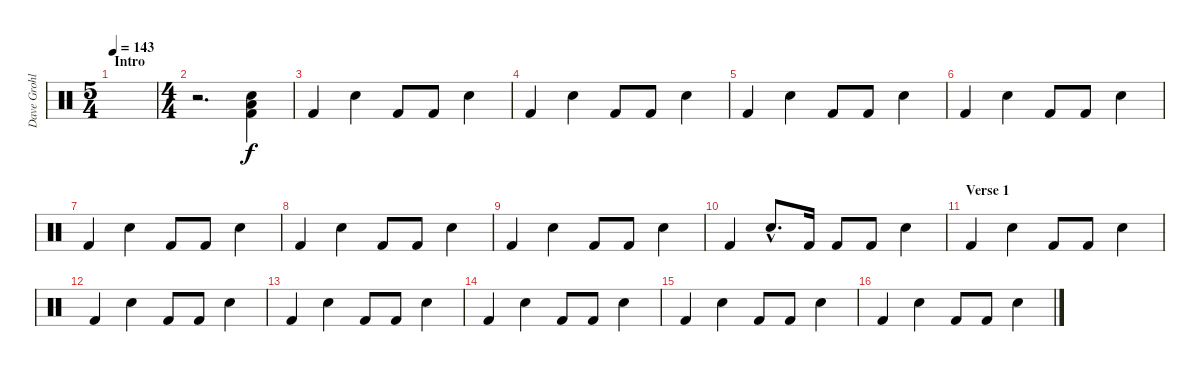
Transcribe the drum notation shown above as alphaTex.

\track ("Dave Grohl" "Dave Grohl") {instrument percussion}
\staff {score}
\articulation defaults
\ts (5 4)
\section ("" "Intro")
\tempo 143
\clef neutral
\ks c
|
\ts (4 4)
r.2{d} ("Snare (hit) 2" "Kick (hit) 2" "Low Tom (hit)").4 |
"Kick (hit) 2".4 "Snare (hit) 2".4 "Kick (hit) 2".8 "Kick (hit) 2".8 "Snare (hit) 2".4 |
"Kick (hit) 2".4 "Snare (hit) 2".4 "Kick (hit) 2".8 "Kick (hit) 2".8 "Snare (hit) 2".4 |
"Kick (hit) 2".4 "Snare (hit) 2".4 "Kick (hit) 2".8 "Kick (hit) 2".8 "Snare (hit) 2".4 |
"Kick (hit) 2".4 "Snare (hit) 2".4 "Kick (hit) 2".8 "Kick (hit) 2".8 "Snare (hit) 2".4 |
"Kick (hit) 2".4 "Snare (hit) 2".4 "Kick (hit) 2".8 "Kick (hit) 2".8 "Snare (hit) 2".4 |
"Kick (hit) 2".4 "Snare (hit) 2".4 "Kick (hit) 2".8 "Kick (hit) 2".8 "Snare (hit) 2".4 |
"Kick (hit) 2".4 "Snare (hit) 2".4 "Kick (hit) 2".8 "Kick (hit) 2".8 "Snare (hit) 2".4 |
"Kick (hit) 2".4 "Snare (hit) 2"{hac}.8{d} "Kick (hit) 2".16 "Kick (hit) 2".8 "Kick (hit) 2".8 "Snare (hit) 2".4 |
\section ("" "Verse 1")
"Kick (hit) 2".4 "Snare (hit) 2".4 "Kick (hit) 2".8 "Kick (hit) 2".8 "Snare (hit) 2".4 |
"Kick (hit) 2".4 "Snare (hit) 2".4 "Kick (hit) 2".8 "Kick (hit) 2".8 "Snare (hit) 2".4 |
"Kick (hit) 2".4 "Snare (hit) 2".4 "Kick (hit) 2".8 "Kick (hit) 2".8 "Snare (hit) 2".4 |
"Kick (hit) 2".4 "Snare (hit) 2".4 "Kick (hit) 2".8 "Kick (hit) 2".8 "Snare (hit) 2".4 |
"Kick (hit) 2".4 "Snare (hit) 2".4 "Kick (hit) 2".8 "Kick (hit) 2".8 "Snare (hit) 2".4 |
"Kick (hit) 2".4 "Snare (hit) 2".4 "Kick (hit) 2".8 "Kick (hit) 2".8 "Snare (hit) 2".4
